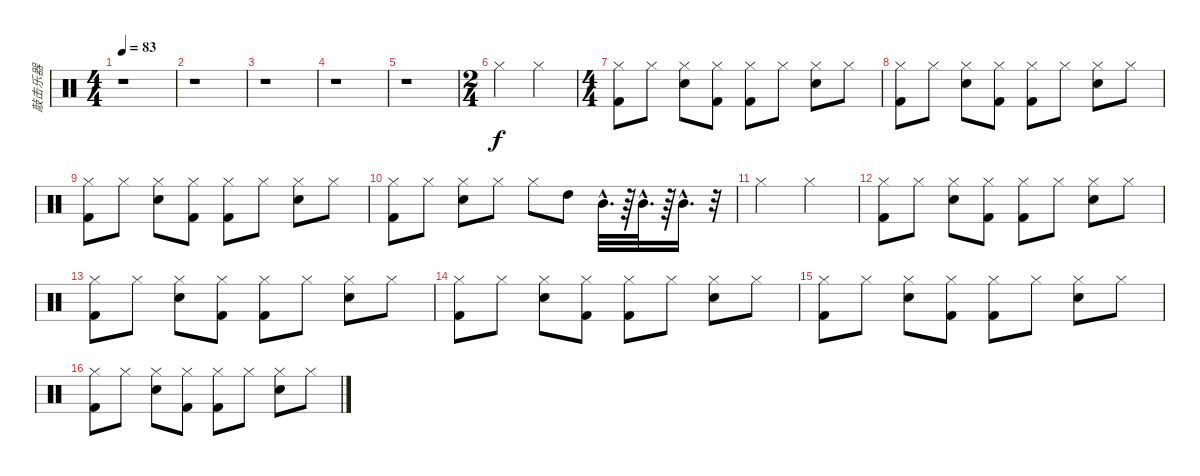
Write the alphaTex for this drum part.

\track ("敲击乐器" "敲击乐器") {instrument percussion}
\staff {score}
\articulation defaults
\ts (4 4)
\tempo 83
\clef neutral
\ks c
r.1{dy f} |
r.1 |
r.1 |
r.1 |
r.1 |
\ts (2 4)
"Hi-Hat (closed)".4 "Hi-Hat (closed)".4 |
\ts (4 4)
("Kick (hit) 2" "Hi-Hat (closed)").8 "Hi-Hat (closed)".8 ("Hi-Hat (closed)" "Snare (hit) 2").8 ("Hi-Hat (closed)" "Kick (hit) 2").8 ("Kick (hit) 2" "Hi-Hat (closed)").8 "Hi-Hat (closed)".8 ("Hi-Hat (closed)" "Snare (hit) 2").8 "Hi-Hat (closed)".8 |
("Kick (hit) 2" "Hi-Hat (closed)").8 "Hi-Hat (closed)".8 ("Hi-Hat (closed)" "Snare (hit) 2").8 ("Hi-Hat (closed)" "Kick (hit) 2").8 ("Kick (hit) 2" "Hi-Hat (closed)").8 "Hi-Hat (closed)".8 ("Hi-Hat (closed)" "Snare (hit) 2").8 "Hi-Hat (closed)".8 |
("Kick (hit) 2" "Hi-Hat (closed)").8 "Hi-Hat (closed)".8 ("Hi-Hat (closed)" "Snare (hit) 2").8 ("Hi-Hat (closed)" "Kick (hit) 2").8 ("Kick (hit) 2" "Hi-Hat (closed)").8 "Hi-Hat (closed)".8 ("Hi-Hat (closed)" "Snare (hit) 2").8 "Hi-Hat (closed)".8 |
("Hi-Hat (closed)" "Kick (hit) 2").8 "Hi-Hat (closed)".8 ("Snare (hit) 2" "Hi-Hat (closed)").8 "Hi-Hat (closed)".8 "Hi-Hat (closed)".8 "High Tom (hit)".8 "Mid Tom (hit)"{hac}.32{d} r.64 "Mid Tom (hit)"{hac}.32{d} r.64 "Mid Tom (hit)"{hac}.16{d} r.32 |
"Hi-Hat (closed)".2 "Hi-Hat (closed)".2 |
("Kick (hit) 2" "Hi-Hat (closed)").8 "Hi-Hat (closed)".8 ("Hi-Hat (closed)" "Snare (hit) 2").8 ("Hi-Hat (closed)" "Kick (hit) 2").8 ("Kick (hit) 2" "Hi-Hat (closed)").8 "Hi-Hat (closed)".8 ("Hi-Hat (closed)" "Snare (hit) 2").8 "Hi-Hat (closed)".8 |
("Kick (hit) 2" "Hi-Hat (closed)").8 "Hi-Hat (closed)".8 ("Hi-Hat (closed)" "Snare (hit) 2").8 ("Hi-Hat (closed)" "Kick (hit) 2").8 ("Kick (hit) 2" "Hi-Hat (closed)").8 "Hi-Hat (closed)".8 ("Hi-Hat (closed)" "Snare (hit) 2").8 "Hi-Hat (closed)".8 |
("Kick (hit) 2" "Hi-Hat (closed)").8 "Hi-Hat (closed)".8 ("Hi-Hat (closed)" "Snare (hit) 2").8 ("Hi-Hat (closed)" "Kick (hit) 2").8 ("Kick (hit) 2" "Hi-Hat (closed)").8 "Hi-Hat (closed)".8 ("Hi-Hat (closed)" "Snare (hit) 2").8 "Hi-Hat (closed)".8 |
("Kick (hit) 2" "Hi-Hat (closed)").8 "Hi-Hat (closed)".8 ("Hi-Hat (closed)" "Snare (hit) 2").8 ("Hi-Hat (closed)" "Kick (hit) 2").8 ("Kick (hit) 2" "Hi-Hat (closed)").8 "Hi-Hat (closed)".8 ("Hi-Hat (closed)" "Snare (hit) 2").8 "Hi-Hat (closed)".8 |
("Kick (hit) 2" "Hi-Hat (closed)").8 "Hi-Hat (closed)".8 ("Hi-Hat (closed)" "Snare (hit) 2").8 ("Hi-Hat (closed)" "Kick (hit) 2").8 ("Kick (hit) 2" "Hi-Hat (closed)").8 "Hi-Hat (closed)".8 ("Hi-Hat (closed)" "Snare (hit) 2").8 "Hi-Hat (closed)".8
